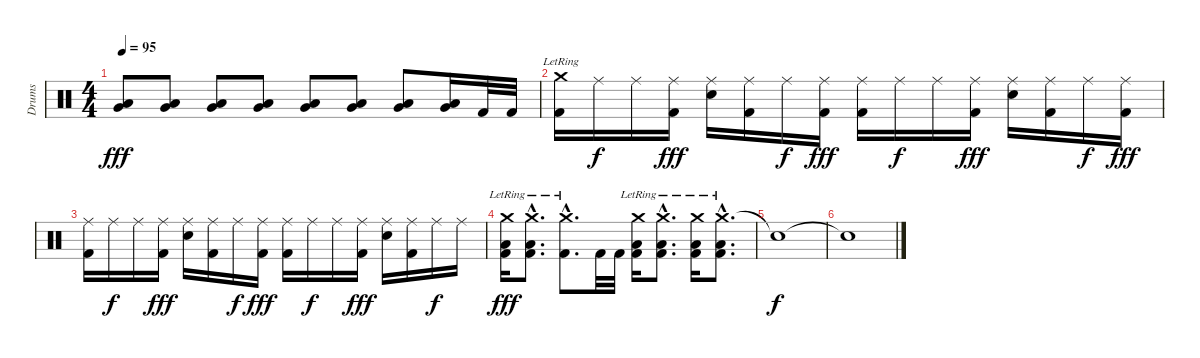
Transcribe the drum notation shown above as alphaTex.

\track ("Drums" "Drums") {instrument percussion}
\staff {score}
\articulation defaults
\ts (4 4)
\tempo 95
\clef neutral
\ks c
("Very Low Tom (hit)" "Low Floor Tom (hit)").8{dy fff} ("Very Low Tom (hit)" "Low Floor Tom (hit)").8 ("Very Low Tom (hit)" "Low Floor Tom (hit)").8 ("Very Low Tom (hit)" "Low Floor Tom (hit)").8 ("Very Low Tom (hit)" "Low Floor Tom (hit)").8 ("Very Low Tom (hit)" "Low Floor Tom (hit)").8 ("Very Low Tom (hit)" "Low Floor Tom (hit)").8 ("Very Low Tom (hit)" "Low Floor Tom (hit)").16 "Kick (hit) 2".32 "Kick (hit) 2".32 |
("Crash medium (hit)"{lr} "Kick (hit) 2").16 "Ride (middle)".16{dy f} "Ride (middle)".16 ("Ride (middle)" "Kick (hit) 2").16{dy fff} ("Ride (middle)" "Electric Snare (hit)").16 ("Ride (middle)" "Kick (hit) 2").16 "Ride (middle)".16{dy f} ("Ride (middle)" "Kick (hit) 2").16{dy fff} ("Ride (middle)" "Kick (hit) 2").16 "Ride (middle)".16{dy f} "Ride (middle)".16 ("Ride (middle)" "Kick (hit) 2").16{dy fff} ("Ride (middle)" "Electric Snare (hit)").16 ("Ride (middle)" "Kick (hit) 2").16 "Ride (middle)".16{dy f} ("Ride (middle)" "Kick (hit) 2").16{dy fff} |
("Ride (middle)" "Kick (hit) 2").16 "Ride (middle)".16{dy f} "Ride (middle)".16 ("Ride (middle)" "Kick (hit) 2").16{dy fff} ("Ride (middle)" "Electric Snare (hit)").16 ("Ride (middle)" "Kick (hit) 2").16 "Ride (middle)".16{dy f} ("Ride (middle)" "Kick (hit) 2").16{dy fff} ("Ride (middle)" "Kick (hit) 2").16 "Ride (middle)".16{dy f} "Ride (middle)".16 ("Ride (middle)" "Kick (hit) 2").16{dy fff} ("Ride (middle)" "Electric Snare (hit)").16 ("Ride (middle)" "Kick (hit) 2").16 "Ride (middle)".16{dy f} "Ride (middle)".16 |
("Crash medium (hit)"{lr} "Low Floor Tom (hit)" "Kick (hit) 2").16{dy fff} ("Crash medium (hit)"{hac lr} "Low Floor Tom (hit)"{hac} "Kick (hit) 2"{hac}).8{d} ("Crash medium (hit)"{hac lr} "Kick (hit) 2"{hac}).8{d} "Kick (hit) 2".32 "Kick (hit) 2".32 ("Crash medium (hit)"{lr} "Low Floor Tom (hit)" "Kick (hit) 2").16 ("Crash medium (hit)"{hac lr} "Low Floor Tom (hit)"{hac} "Kick (hit) 2"{hac}).8{d} ("Crash medium (hit)"{lr} "Low Floor Tom (hit)" "Kick (hit) 2").16 ("Crash medium (hit)"{hac lr} "Low Floor Tom (hit)"{hac} "Kick (hit) 2"{hac}).8{d} |
"Snare (hit)"{t}.1{dy f} |
"Snare (hit)"{t}.1
